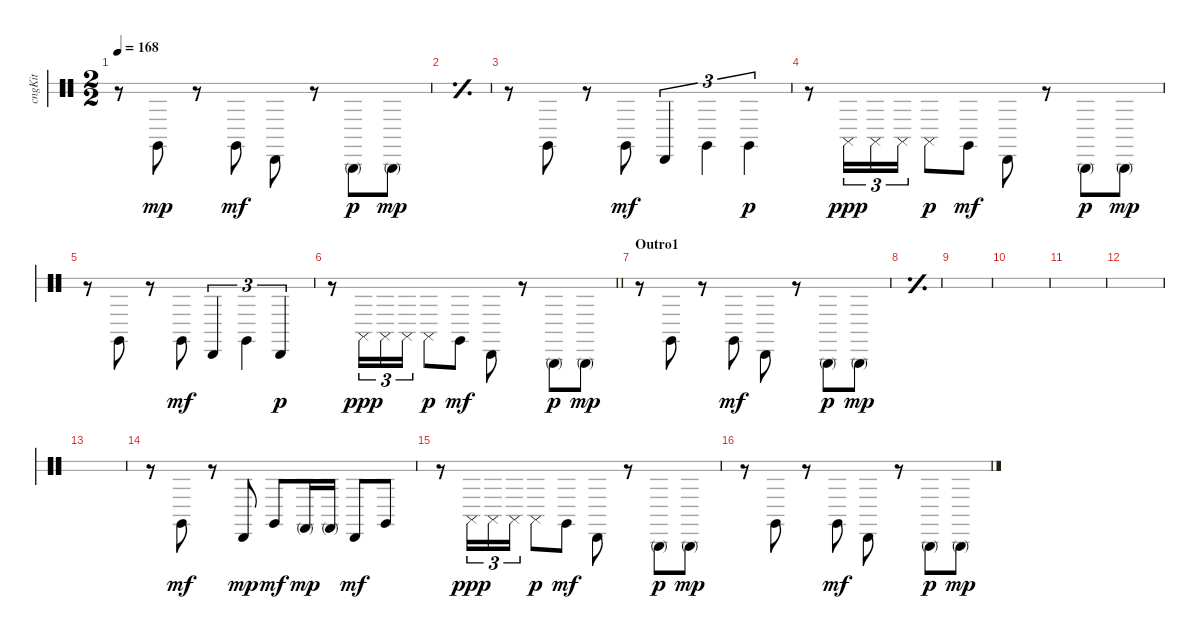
\bracketExtendMode groupsimilarinstruments
\multiTrackTrackNamePolicy hidden
\otherSystemsTrackNameOrientation horizontal
\track ("Congas" "cngKit") {instrument percussion}
\staff {score 2}
\articulation defaults
\ts (2 2)
\tempo 168
\clef neutral
\ks c
r.8{dy mp beam Down} "Conga high (hit)".8{beam Down} r.8{beam Down} "Conga high (hit)".8{dy mf beam Down} "Conga low (hit)".8{beam Down} r.8{beam Down} "Conga high (mute)".8{dy p beam Down} "Conga high (mute)".8{dy mp beam Down} |
\simile simple
|
\simile none
r.8{beam Down} "Conga high (hit)".8{beam Down} r.8{beam Down} "Conga high (hit)".8{dy mf beam Down} "Conga low (hit)".4{tu (3 2) beam Up} "Conga high (hit)".4{tu (3 2) beam Down} "Conga high (hit)".4{tu (3 2) dy p beam Down} |
r.8{beam Down} "Conga high (slap)".16{tu (3 2) dy ppp beam Down} "Conga high (slap)".16{tu (3 2) beam Down} "Conga high (slap)".16{tu (3 2) beam Down} "Conga high (slap)".8{dy p beam Down} "Conga high (hit)".8{dy mf beam Down} "Conga low (hit)".8{beam Down} r.8{beam Down} "Conga high (mute)".8{dy p beam Down} "Conga high (mute)".8{dy mp beam Down} |
r.8{beam Down} "Conga high (hit)".8{beam Down} r.8{beam Down} "Conga high (hit)".8{dy mf beam Down} "Conga low (hit)".4{tu (3 2) beam Up} "Conga high (hit)".4{tu (3 2) beam Down} "Conga low (hit)".4{tu (3 2) dy p beam Up} |
\barLineRight lightlight
r.8{beam Down} "Conga high (slap)".16{tu (3 2) dy ppp beam Down} "Conga high (slap)".16{tu (3 2) beam Down} "Conga high (slap)".16{tu (3 2) beam Down} "Conga high (slap)".8{dy p beam Down} "Conga high (hit)".8{dy mf beam Down} "Conga low (hit)".8{beam Down} r.8{beam Down} "Conga high (mute)".8{dy p beam Down} "Conga high (mute)".8{dy mp beam Down} |
\section ("" "Outro1")
r.8{beam Down} "Conga high (hit)".8{beam Down} r.8{beam Down} "Conga high (hit)".8{dy mf beam Down} "Conga low (hit)".8{beam Down} r.8{beam Down} "Conga high (mute)".8{dy p beam Down} "Conga high (mute)".8{dy mp beam Down} |
\simile simple
|
|
|
|
|
|
\simile none
r.8{beam Down} "Conga high (hit)".8{dy mf beam Up} r.8{beam Up} "Conga low (hit)".8{dy mp beam Up} "Conga high (hit)".8{dy mf beam Up} "Conga low (mute)".16{dy mp beam Up} "Conga low (mute)".16{beam Up} "Conga low (hit)".8{dy mf beam Up} "Conga high (hit)".8{beam Up} |
r.8{beam Down} "Conga high (slap)".16{tu (3 2) dy ppp beam Down} "Conga high (slap)".16{tu (3 2) beam Down} "Conga high (slap)".16{tu (3 2) beam Down} "Conga high (slap)".8{dy p beam Down} "Conga high (hit)".8{dy mf beam Down} "Conga low (hit)".8{beam Down} r.8{beam Down} "Conga high (mute)".8{dy p beam Down} "Conga high (mute)".8{dy mp beam Down} |
r.8{beam Down} "Conga high (hit)".8{beam Down} r.8{beam Down} "Conga high (hit)".8{dy mf beam Down} "Conga low (hit)".8{beam Down} r.8{beam Down} "Conga high (mute)".8{dy p beam Down} "Conga high (mute)".8{dy mp beam Down}
